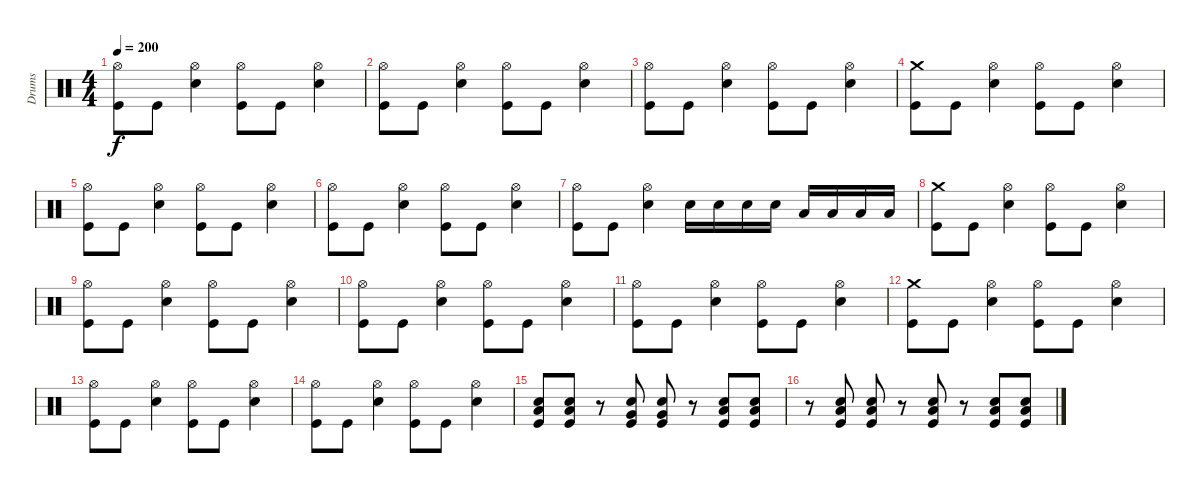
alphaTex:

\track ("Drums" "Drums") {instrument percussion}
\staff {score}
\articulation defaults
\ts (4 4)
\tempo 200
\clef neutral
\ks c
("Hi-Hat (open)" "Kick (hit)").8{dy f} "Kick (hit)".8 ("Hi-Hat (open)" "Electric Snare (hit)").4 ("Hi-Hat (open)" "Kick (hit)").8 "Kick (hit)".8 ("Hi-Hat (open)" "Electric Snare (hit)").4 |
("Hi-Hat (open)" "Kick (hit)").8 "Kick (hit)".8 ("Hi-Hat (open)" "Electric Snare (hit)").4 ("Hi-Hat (open)" "Kick (hit)").8 "Kick (hit)".8 ("Hi-Hat (open)" "Electric Snare (hit)").4 |
("Hi-Hat (open)" "Kick (hit)").8 "Kick (hit)".8 ("Hi-Hat (open)" "Electric Snare (hit)").4 ("Hi-Hat (open)" "Kick (hit)").8 "Kick (hit)".8 ("Hi-Hat (open)" "Electric Snare (hit)").4 |
("Crash medium (hit)" "Kick (hit)").8 "Kick (hit)".8 ("Hi-Hat (open)" "Electric Snare (hit)").4 ("Hi-Hat (open)" "Kick (hit)").8 "Kick (hit)".8 ("Hi-Hat (open)" "Electric Snare (hit)").4 |
("Hi-Hat (open)" "Kick (hit)").8 "Kick (hit)".8 ("Hi-Hat (open)" "Electric Snare (hit)").4 ("Hi-Hat (open)" "Kick (hit)").8 "Kick (hit)".8 ("Hi-Hat (open)" "Electric Snare (hit)").4 |
("Hi-Hat (open)" "Kick (hit)").8 "Kick (hit)".8 ("Hi-Hat (open)" "Electric Snare (hit)").4 ("Hi-Hat (open)" "Kick (hit)").8 "Kick (hit)".8 ("Hi-Hat (open)" "Electric Snare (hit)").4 |
("Hi-Hat (open)" "Kick (hit)").8 "Kick (hit)".8 ("Hi-Hat (open)" "Electric Snare (hit)").4 "Electric Snare (hit)".16 "Electric Snare (hit)".16 "Electric Snare (hit)".16 "Electric Snare (hit)".16 "Low Tom (hit)".16 "Low Tom (hit)".16 "Low Tom (hit)".16 "Low Tom (hit)".16 |
("Crash medium (hit)" "Kick (hit)").8 "Kick (hit)".8 ("Hi-Hat (open)" "Electric Snare (hit)").4 ("Hi-Hat (open)" "Kick (hit)").8 "Kick (hit)".8 ("Hi-Hat (open)" "Electric Snare (hit)").4 |
("Hi-Hat (open)" "Kick (hit)").8 "Kick (hit)".8 ("Hi-Hat (open)" "Electric Snare (hit)").4 ("Hi-Hat (open)" "Kick (hit)").8 "Kick (hit)".8 ("Hi-Hat (open)" "Electric Snare (hit)").4 |
("Hi-Hat (open)" "Kick (hit)").8 "Kick (hit)".8 ("Hi-Hat (open)" "Electric Snare (hit)").4 ("Hi-Hat (open)" "Kick (hit)").8 "Kick (hit)".8 ("Hi-Hat (open)" "Electric Snare (hit)").4 |
("Hi-Hat (open)" "Kick (hit)").8 "Kick (hit)".8 ("Hi-Hat (open)" "Electric Snare (hit)").4 ("Hi-Hat (open)" "Kick (hit)").8 "Kick (hit)".8 ("Hi-Hat (open)" "Electric Snare (hit)").4 |
("Crash medium (hit)" "Kick (hit)").8 "Kick (hit)".8 ("Hi-Hat (open)" "Electric Snare (hit)").4 ("Hi-Hat (open)" "Kick (hit)").8 "Kick (hit)".8 ("Hi-Hat (open)" "Electric Snare (hit)").4 |
("Hi-Hat (open)" "Kick (hit)").8 "Kick (hit)".8 ("Hi-Hat (open)" "Electric Snare (hit)").4 ("Hi-Hat (open)" "Kick (hit)").8 "Kick (hit)".8 ("Hi-Hat (open)" "Electric Snare (hit)").4 |
("Hi-Hat (open)" "Kick (hit)").8 "Kick (hit)".8 ("Hi-Hat (open)" "Electric Snare (hit)").4 ("Hi-Hat (open)" "Kick (hit)").8 "Kick (hit)".8 ("Hi-Hat (open)" "Electric Snare (hit)").4 |
("Low Tom (hit)" "Electric Snare (hit)" "Kick (hit)").8 ("Low Tom (hit)" "Electric Snare (hit)" "Kick (hit)").8 r.8 ("Very Low Tom (hit)" "Electric Snare (hit)" "Kick (hit)").8 ("Very Low Tom (hit)" "Electric Snare (hit)" "Kick (hit)").8 r.8 ("Low Floor Tom (hit)" "Electric Snare (hit)" "Kick (hit)").8 ("Low Floor Tom (hit)" "Electric Snare (hit)" "Kick (hit)").8 |
r.8 ("Low Floor Tom (hit)" "Electric Snare (hit)" "Kick (hit)").8 ("Low Floor Tom (hit)" "Electric Snare (hit)" "Kick (hit)").8 r.8 ("Low Floor Tom (hit)" "Electric Snare (hit)" "Kick (hit)").8 r.8 ("Low Floor Tom (hit)" "Electric Snare (hit)" "Kick (hit)").8 ("Low Floor Tom (hit)" "Electric Snare (hit)" "Kick (hit)").8
